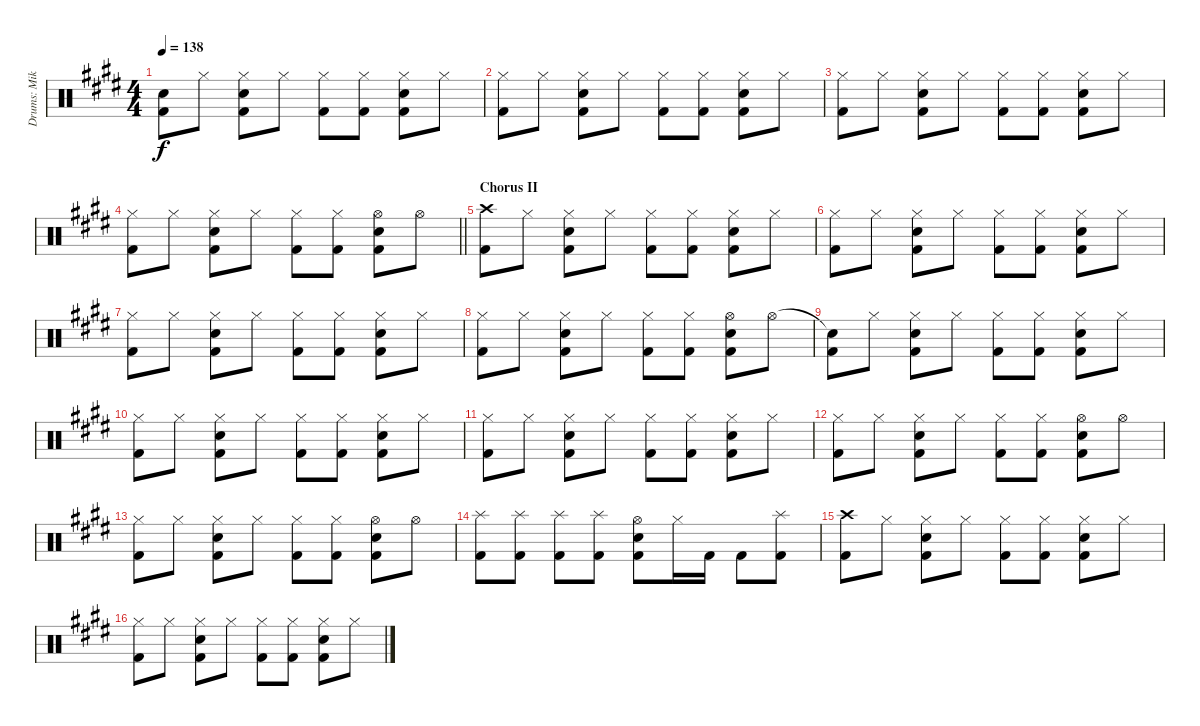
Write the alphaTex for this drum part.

\track ("Drums: Mike" "Drums: Mik") {instrument percussion}
\staff {score}
\articulation defaults
\ts (4 4)
\tempo 138
\clef neutral
\ks e
("Snare (hit)"{t} "Kick (hit) 2").8{dy f} "Hi-Hat (closed)".8 ("Hi-Hat (closed)" "Electric Snare (hit)" "Kick (hit) 2").8 "Hi-Hat (closed)".8 ("Hi-Hat (closed)" "Kick (hit) 2").8 ("Hi-Hat (closed)" "Kick (hit) 2").8 ("Hi-Hat (closed)" "Electric Snare (hit)" "Kick (hit) 2").8 "Hi-Hat (closed)".8 |
("Hi-Hat (closed)" "Kick (hit) 2").8 "Hi-Hat (closed)".8 ("Hi-Hat (closed)" "Electric Snare (hit)" "Kick (hit) 2").8 "Hi-Hat (closed)".8 ("Hi-Hat (closed)" "Kick (hit) 2").8 ("Hi-Hat (closed)" "Kick (hit) 2").8 ("Hi-Hat (closed)" "Electric Snare (hit)" "Kick (hit) 2").8 "Hi-Hat (closed)".8 |
("Hi-Hat (closed)" "Kick (hit) 2").8 "Hi-Hat (closed)".8 ("Hi-Hat (closed)" "Electric Snare (hit)" "Kick (hit) 2").8 "Hi-Hat (closed)".8 ("Hi-Hat (closed)" "Kick (hit) 2").8 ("Hi-Hat (closed)" "Kick (hit) 2").8 ("Hi-Hat (closed)" "Electric Snare (hit)" "Kick (hit) 2").8 "Hi-Hat (closed)".8 |
\barLineRight lightlight
("Hi-Hat (closed)" "Kick (hit) 2").8 "Hi-Hat (closed)".8 ("Hi-Hat (closed)" "Electric Snare (hit)" "Kick (hit) 2").8 "Hi-Hat (closed)".8 ("Hi-Hat (closed)" "Kick (hit) 2").8 ("Hi-Hat (closed)" "Kick (hit) 2").8 ("Hi-Hat (open)" "Electric Snare (hit)" "Kick (hit) 2").8 "Hi-Hat (open)".8 |
\section ("" "Chorus II")
("Crash high (hit)" "Kick (hit) 2").8 "Hi-Hat (closed)".8 ("Hi-Hat (closed)" "Electric Snare (hit)" "Kick (hit) 2").8 "Hi-Hat (closed)".8 ("Hi-Hat (closed)" "Kick (hit) 2").8 ("Hi-Hat (closed)" "Kick (hit) 2").8 ("Hi-Hat (closed)" "Electric Snare (hit)" "Kick (hit) 2").8 "Hi-Hat (closed)".8 |
("Hi-Hat (closed)" "Kick (hit) 2").8 "Hi-Hat (closed)".8 ("Hi-Hat (closed)" "Electric Snare (hit)" "Kick (hit) 2").8 "Hi-Hat (closed)".8 ("Hi-Hat (closed)" "Kick (hit) 2").8 ("Hi-Hat (closed)" "Kick (hit) 2").8 ("Hi-Hat (closed)" "Electric Snare (hit)" "Kick (hit) 2").8 "Hi-Hat (closed)".8 |
("Hi-Hat (closed)" "Kick (hit) 2").8 "Hi-Hat (closed)".8 ("Hi-Hat (closed)" "Electric Snare (hit)" "Kick (hit) 2").8 "Hi-Hat (closed)".8 ("Hi-Hat (closed)" "Kick (hit) 2").8 ("Hi-Hat (closed)" "Kick (hit) 2").8 ("Hi-Hat (closed)" "Electric Snare (hit)" "Kick (hit) 2").8 "Hi-Hat (closed)".8 |
("Hi-Hat (closed)" "Kick (hit) 2").8 "Hi-Hat (closed)".8 ("Hi-Hat (closed)" "Electric Snare (hit)" "Kick (hit) 2").8 "Hi-Hat (closed)".8 ("Hi-Hat (closed)" "Kick (hit) 2").8 ("Hi-Hat (closed)" "Kick (hit) 2").8 ("Hi-Hat (open)" "Electric Snare (hit)" "Kick (hit) 2").8 "Hi-Hat (open)".8 |
("Snare (hit)"{t} "Kick (hit) 2").8 "Hi-Hat (closed)".8 ("Hi-Hat (closed)" "Electric Snare (hit)" "Kick (hit) 2").8 "Hi-Hat (closed)".8 ("Hi-Hat (closed)" "Kick (hit) 2").8 ("Hi-Hat (closed)" "Kick (hit) 2").8 ("Hi-Hat (closed)" "Electric Snare (hit)" "Kick (hit) 2").8 "Hi-Hat (closed)".8 |
("Hi-Hat (closed)" "Kick (hit) 2").8 "Hi-Hat (closed)".8 ("Hi-Hat (closed)" "Electric Snare (hit)" "Kick (hit) 2").8 "Hi-Hat (closed)".8 ("Hi-Hat (closed)" "Kick (hit) 2").8 ("Hi-Hat (closed)" "Kick (hit) 2").8 ("Hi-Hat (closed)" "Electric Snare (hit)" "Kick (hit) 2").8 "Hi-Hat (closed)".8 |
("Hi-Hat (closed)" "Kick (hit) 2").8 "Hi-Hat (closed)".8 ("Hi-Hat (closed)" "Electric Snare (hit)" "Kick (hit) 2").8 "Hi-Hat (closed)".8 ("Hi-Hat (closed)" "Kick (hit) 2").8 ("Hi-Hat (closed)" "Kick (hit) 2").8 ("Hi-Hat (closed)" "Electric Snare (hit)" "Kick (hit) 2").8 "Hi-Hat (closed)".8 |
("Hi-Hat (closed)" "Kick (hit) 2").8 "Hi-Hat (closed)".8 ("Hi-Hat (closed)" "Electric Snare (hit)" "Kick (hit) 2").8 "Hi-Hat (closed)".8 ("Hi-Hat (closed)" "Kick (hit) 2").8 ("Hi-Hat (closed)" "Kick (hit) 2").8 ("Hi-Hat (open)" "Electric Snare (hit)" "Kick (hit) 2").8 "Hi-Hat (open)".8 |
("Hi-Hat (closed)" "Kick (hit) 2").8 "Hi-Hat (closed)".8 ("Hi-Hat (closed)" "Electric Snare (hit)" "Kick (hit) 2").8 "Hi-Hat (closed)".8 ("Hi-Hat (closed)" "Kick (hit) 2").8 ("Hi-Hat (closed)" "Kick (hit) 2").8 ("Hi-Hat (open)" "Electric Snare (hit)" "Kick (hit) 2").8 "Hi-Hat (open)".8 |
("Splash (hit)" "Kick (hit) 2").8 ("Splash (hit)" "Kick (hit) 2").8 ("Splash (hit)" "Kick (hit) 2").8 ("Splash (hit)" "Kick (hit) 2").8 ("Hi-Hat (open)" "Snare (hit) 2" "Kick (hit) 2").8 "Hi-Hat (closed)".16 "Kick (hit) 2".16 "Kick (hit) 2".8 ("Splash (hit)" "Kick (hit) 2").8 |
("Crash high (hit)" "Kick (hit) 2").8 "Hi-Hat (closed)".8 ("Hi-Hat (closed)" "Electric Snare (hit)" "Kick (hit) 2").8 "Hi-Hat (closed)".8 ("Hi-Hat (closed)" "Kick (hit) 2").8 ("Hi-Hat (closed)" "Kick (hit) 2").8 ("Hi-Hat (closed)" "Electric Snare (hit)" "Kick (hit) 2").8 "Hi-Hat (closed)".8 |
("Hi-Hat (closed)" "Kick (hit) 2").8 "Hi-Hat (closed)".8 ("Hi-Hat (closed)" "Electric Snare (hit)" "Kick (hit) 2").8 "Hi-Hat (closed)".8 ("Hi-Hat (closed)" "Kick (hit) 2").8 ("Hi-Hat (closed)" "Kick (hit) 2").8 ("Hi-Hat (closed)" "Electric Snare (hit)" "Kick (hit) 2").8 "Hi-Hat (closed)".8
